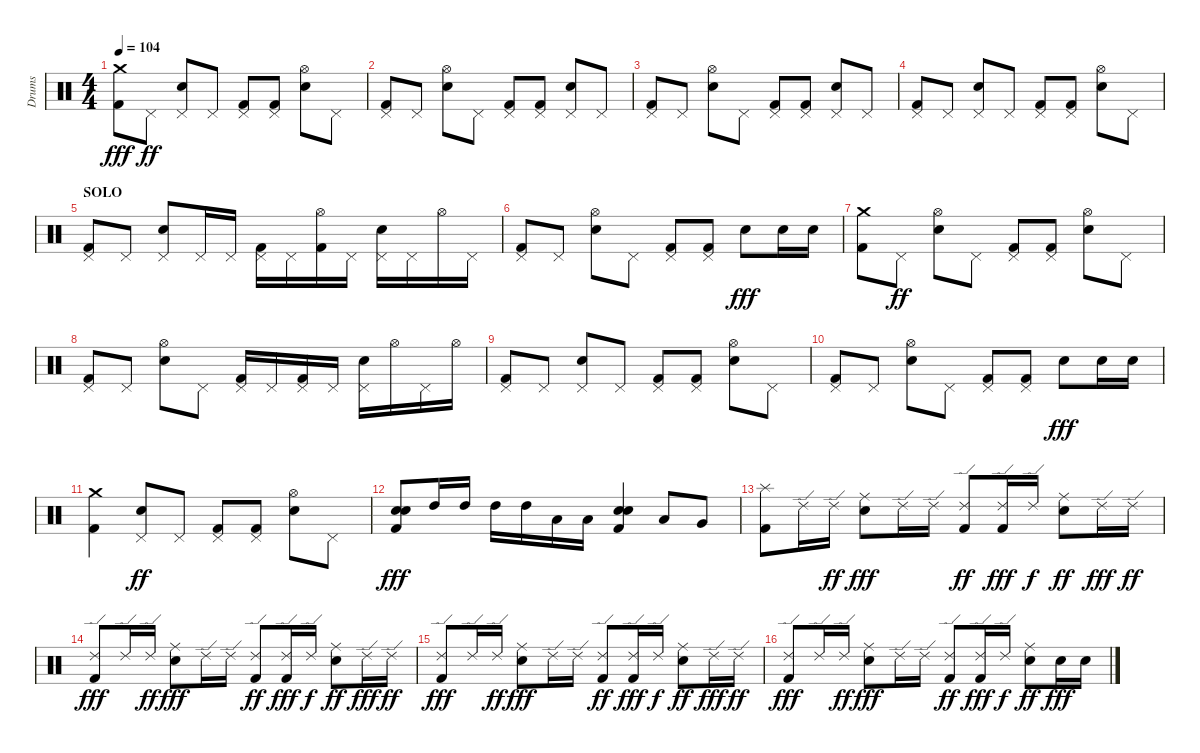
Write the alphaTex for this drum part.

\track ("Drums" "Drums") {instrument percussion}
\staff {score}
\articulation defaults
\ts (4 4)
\tempo 104
\clef neutral
\ks c
("Crash medium (hit)" "Kick (hit) 2").8{dy fff} "Pedal Hi-Hat (hit)".8{dy ff} ("Electric Snare (hit)" "Pedal Hi-Hat (hit)").8 "Pedal Hi-Hat (hit)".8 ("Kick (hit) 2" "Pedal Hi-Hat (hit)").8 ("Kick (hit) 2" "Pedal Hi-Hat (hit)").8 ("Electric Snare (hit)" "Hi-Hat (open)").8 "Pedal Hi-Hat (hit)".8 |
("Kick (hit) 2" "Pedal Hi-Hat (hit)").8 "Pedal Hi-Hat (hit)".8 ("Electric Snare (hit)" "Hi-Hat (open)").8 "Pedal Hi-Hat (hit)".8 ("Kick (hit) 2" "Pedal Hi-Hat (hit)").8 ("Kick (hit) 2" "Pedal Hi-Hat (hit)").8 ("Electric Snare (hit)" "Pedal Hi-Hat (hit)").8 "Pedal Hi-Hat (hit)".8 |
("Kick (hit) 2" "Pedal Hi-Hat (hit)").8 "Pedal Hi-Hat (hit)".8 ("Electric Snare (hit)" "Hi-Hat (open)").8 "Pedal Hi-Hat (hit)".8 ("Kick (hit) 2" "Pedal Hi-Hat (hit)").8 ("Kick (hit) 2" "Pedal Hi-Hat (hit)").8 ("Electric Snare (hit)" "Pedal Hi-Hat (hit)").8 "Pedal Hi-Hat (hit)".8 |
("Kick (hit) 2" "Pedal Hi-Hat (hit)").8 "Pedal Hi-Hat (hit)".8 ("Electric Snare (hit)" "Pedal Hi-Hat (hit)").8 "Pedal Hi-Hat (hit)".8 ("Kick (hit) 2" "Pedal Hi-Hat (hit)").8 ("Kick (hit) 2" "Pedal Hi-Hat (hit)").8 ("Electric Snare (hit)" "Hi-Hat (open)").8 "Pedal Hi-Hat (hit)".8 |
\section ("" "SOLO")
("Kick (hit) 2" "Pedal Hi-Hat (hit)").8 "Pedal Hi-Hat (hit)".8 ("Electric Snare (hit)" "Pedal Hi-Hat (hit)").8 "Pedal Hi-Hat (hit)".16 "Pedal Hi-Hat (hit)".16 ("Kick (hit) 2" "Pedal Hi-Hat (hit)").16 "Pedal Hi-Hat (hit)".16 ("Kick (hit) 2" "Hi-Hat (open)").16 "Pedal Hi-Hat (hit)".16 ("Electric Snare (hit)" "Pedal Hi-Hat (hit)").16 "Pedal Hi-Hat (hit)".16 "Hi-Hat (open)".16 "Pedal Hi-Hat (hit)".16 |
("Kick (hit) 2" "Pedal Hi-Hat (hit)").8 "Pedal Hi-Hat (hit)".8 ("Electric Snare (hit)" "Hi-Hat (open)").8 "Pedal Hi-Hat (hit)".8 ("Kick (hit) 2" "Pedal Hi-Hat (hit)").8 ("Kick (hit) 2" "Pedal Hi-Hat (hit)").8 "Electric Snare (hit)".8{dy fff} "Electric Snare (hit)".16 "Electric Snare (hit)".16 |
("Crash medium (hit)" "Kick (hit) 2").8 "Pedal Hi-Hat (hit)".8{dy ff} ("Electric Snare (hit)" "Hi-Hat (open)").8 "Pedal Hi-Hat (hit)".8 ("Kick (hit) 2" "Pedal Hi-Hat (hit)").8 ("Kick (hit) 2" "Pedal Hi-Hat (hit)").8 ("Electric Snare (hit)" "Hi-Hat (open)").8 "Pedal Hi-Hat (hit)".8 |
("Kick (hit) 2" "Pedal Hi-Hat (hit)").8 "Pedal Hi-Hat (hit)".8 ("Electric Snare (hit)" "Hi-Hat (open)").8 "Pedal Hi-Hat (hit)".8 ("Kick (hit) 2" "Pedal Hi-Hat (hit)").16 "Pedal Hi-Hat (hit)".16 ("Kick (hit) 2" "Pedal Hi-Hat (hit)").16 "Pedal Hi-Hat (hit)".16 ("Electric Snare (hit)" "Pedal Hi-Hat (hit)").16 "Hi-Hat (open)".16 "Pedal Hi-Hat (hit)".16 "Hi-Hat (open)".16 |
("Kick (hit) 2" "Pedal Hi-Hat (hit)").8 "Pedal Hi-Hat (hit)".8 ("Electric Snare (hit)" "Pedal Hi-Hat (hit)").8 "Pedal Hi-Hat (hit)".8 ("Kick (hit) 2" "Pedal Hi-Hat (hit)").8 ("Kick (hit) 2" "Pedal Hi-Hat (hit)").8 ("Electric Snare (hit)" "Hi-Hat (open)").8 "Pedal Hi-Hat (hit)".8 |
("Kick (hit) 2" "Pedal Hi-Hat (hit)").8 "Pedal Hi-Hat (hit)".8 ("Electric Snare (hit)" "Hi-Hat (open)").8 "Pedal Hi-Hat (hit)".8 ("Kick (hit) 2" "Pedal Hi-Hat (hit)").8 ("Kick (hit) 2" "Pedal Hi-Hat (hit)").8 "Electric Snare (hit)".8{dy fff} "Electric Snare (hit)".16 "Electric Snare (hit)".16 |
("Crash medium (hit)" "Kick (hit) 2").4 ("Electric Snare (hit)" "Pedal Hi-Hat (hit)").8{dy ff} "Pedal Hi-Hat (hit)".8 ("Kick (hit) 2" "Pedal Hi-Hat (hit)").8 ("Kick (hit) 2" "Pedal Hi-Hat (hit)").8 ("Electric Snare (hit)" "Hi-Hat (open)").8 "Pedal Hi-Hat (hit)".8 |
("Electric Snare (hit)" "Kick (hit) 2" "Electric Snare (hit)").8{dy fff} "High Tom (hit)".16 "High Tom (hit)".16 "High Tom (hit)".16 "High Tom (hit)".16 "Low Tom (hit)".16 "Low Tom (hit)".16 ("Electric Snare (hit)" "Kick (hit) 2" "Electric Snare (hit)").4 "Low Tom (hit)".8 "Very Low Tom (hit)".8 |
("Splash (hit)" "Kick (hit) 2").8 "Ride (edge) 2".16 "Ride (edge) 2".16{dy ff} ("Electric Snare (hit)" "Ride (middle)").8{dy fff} "Ride (edge) 2".16 "Ride (edge) 2".16 ("Kick (hit) 2" "Ride (edge) 2").8{dy ff} ("Kick (hit) 2" "Ride (edge) 2").16{dy fff} "Ride (edge) 2".16{dy f} ("Electric Snare (hit)" "Ride (middle)").8{dy ff} "Ride (edge) 2".16{dy fff} "Ride (edge) 2".16{dy ff} |
("Kick (hit) 2" "Ride (edge) 2").8{dy fff} "Ride (edge) 2".16 "Ride (edge) 2".16{dy ff} ("Electric Snare (hit)" "Ride (middle)").8{dy fff} "Ride (edge) 2".16 "Ride (edge) 2".16 ("Kick (hit) 2" "Ride (edge) 2").8{dy ff} ("Kick (hit) 2" "Ride (edge) 2").16{dy fff} "Ride (edge) 2".16{dy f} ("Electric Snare (hit)" "Ride (middle)").8{dy ff} "Ride (edge) 2".16{dy fff} "Ride (edge) 2".16{dy ff} |
("Kick (hit) 2" "Ride (edge) 2").8{dy fff} "Ride (edge) 2".16 "Ride (edge) 2".16{dy ff} ("Electric Snare (hit)" "Ride (middle)").8{dy fff} "Ride (edge) 2".16 "Ride (edge) 2".16 ("Kick (hit) 2" "Ride (edge) 2").8{dy ff} ("Kick (hit) 2" "Ride (edge) 2").16{dy fff} "Ride (edge) 2".16{dy f} ("Electric Snare (hit)" "Ride (middle)").8{dy ff} "Ride (edge) 2".16{dy fff} "Ride (edge) 2".16{dy ff} |
("Kick (hit) 2" "Ride (edge) 2").8{dy fff} "Ride (edge) 2".16 "Ride (edge) 2".16{dy ff} ("Electric Snare (hit)" "Ride (middle)").8{dy fff} "Ride (edge) 2".16 "Ride (edge) 2".16 ("Kick (hit) 2" "Ride (edge) 2").8{dy ff} ("Kick (hit) 2" "Ride (edge) 2").16{dy fff} "Ride (edge) 2".16{dy f} ("Electric Snare (hit)" "Ride (middle)").8{dy ff} "Electric Snare (hit)".16{dy fff} "Electric Snare (hit)".16
